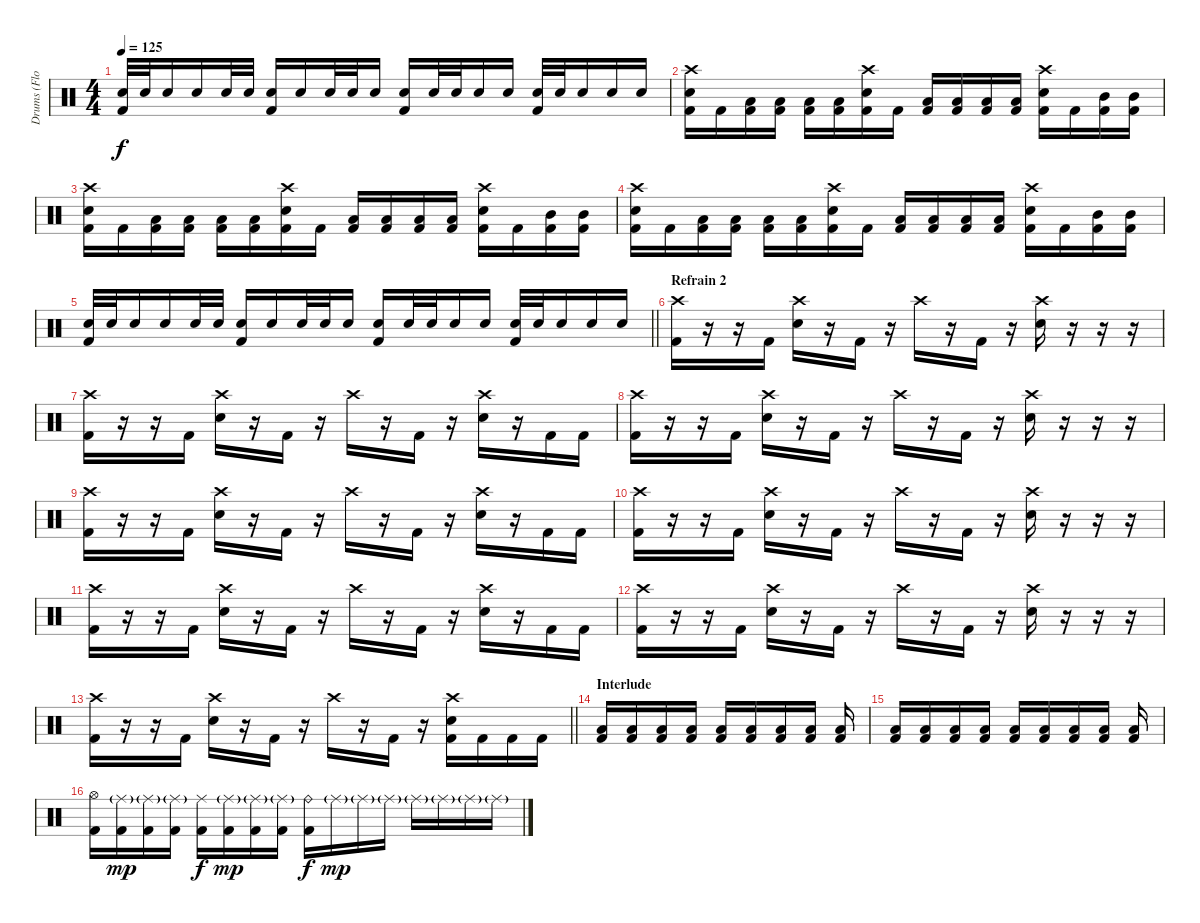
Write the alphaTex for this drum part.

\track ("Drums (Floboter)" "Drums (Flo") {instrument percussion}
\staff {score}
\articulation defaults
\ts (4 4)
\tempo 125
\clef neutral
\ks c
("Snare (hit) 2" "Kick (hit) 2").32{dy f} "Snare (hit) 2".32 "Snare (hit) 2".16 "Snare (hit) 2".16 "Snare (hit) 2".32 "Snare (hit) 2".32 ("Snare (hit) 2" "Kick (hit) 2").16 "Snare (hit) 2".16 "Snare (hit) 2".32 "Snare (hit) 2".32 "Snare (hit) 2".16 ("Snare (hit) 2" "Kick (hit) 2").16 "Snare (hit) 2".32 "Snare (hit) 2".32 "Snare (hit) 2".16 "Snare (hit) 2".16 ("Snare (hit) 2" "Kick (hit) 2").32 "Snare (hit) 2".32 "Snare (hit) 2".16 "Snare (hit) 2".16 "Snare (hit) 2".16 |
("Crash high (hit)" "Snare (hit) 2" "Kick (hit) 2").16 "Kick (hit) 2".16 ("Low Tom (hit)" "Kick (hit) 2").16 ("Low Tom (hit)" "Kick (hit) 2").16 ("Low Floor Tom (hit)" "Kick (hit) 2").16 ("Low Floor Tom (hit)" "Kick (hit) 2").16 ("Crash high (hit)" "Snare (hit) 2" "Kick (hit) 2").16 "Kick (hit) 2".16 ("Low Tom (hit)" "Kick (hit) 2").16 ("Low Tom (hit)" "Kick (hit) 2").16 ("Low Floor Tom (hit)" "Kick (hit) 2").16 ("Low Floor Tom (hit)" "Kick (hit) 2").16 ("Crash high (hit)" "Snare (hit) 2" "Kick (hit) 2").16 "Kick (hit) 2".16 ("Mid Tom (hit)" "Kick (hit) 2").16 ("Mid Tom (hit)" "Kick (hit) 2").16 |
("Crash high (hit)" "Snare (hit) 2" "Kick (hit) 2").16 "Kick (hit) 2".16 ("Low Tom (hit)" "Kick (hit) 2").16 ("Low Tom (hit)" "Kick (hit) 2").16 ("Low Floor Tom (hit)" "Kick (hit) 2").16 ("Low Floor Tom (hit)" "Kick (hit) 2").16 ("Crash high (hit)" "Snare (hit) 2" "Kick (hit) 2").16 "Kick (hit) 2".16 ("Low Tom (hit)" "Kick (hit) 2").16 ("Low Tom (hit)" "Kick (hit) 2").16 ("Low Floor Tom (hit)" "Kick (hit) 2").16 ("Low Floor Tom (hit)" "Kick (hit) 2").16 ("Crash high (hit)" "Snare (hit) 2" "Kick (hit) 2").16 "Kick (hit) 2".16 ("Mid Tom (hit)" "Kick (hit) 2").16 ("Mid Tom (hit)" "Kick (hit) 2").16 |
("Crash high (hit)" "Snare (hit) 2" "Kick (hit) 2").16 "Kick (hit) 2".16 ("Low Tom (hit)" "Kick (hit) 2").16 ("Low Tom (hit)" "Kick (hit) 2").16 ("Low Floor Tom (hit)" "Kick (hit) 2").16 ("Low Floor Tom (hit)" "Kick (hit) 2").16 ("Crash high (hit)" "Snare (hit) 2" "Kick (hit) 2").16 "Kick (hit) 2".16 ("Low Tom (hit)" "Kick (hit) 2").16 ("Low Tom (hit)" "Kick (hit) 2").16 ("Low Floor Tom (hit)" "Kick (hit) 2").16 ("Low Floor Tom (hit)" "Kick (hit) 2").16 ("Crash high (hit)" "Snare (hit) 2" "Kick (hit) 2").16 "Kick (hit) 2".16 ("Mid Tom (hit)" "Kick (hit) 2").16 ("Mid Tom (hit)" "Kick (hit) 2").16 |
\barLineRight lightlight
("Snare (hit) 2" "Kick (hit) 2").32 "Snare (hit) 2".32 "Snare (hit) 2".16 "Snare (hit) 2".16 "Snare (hit) 2".32 "Snare (hit) 2".32 ("Snare (hit) 2" "Kick (hit) 2").16 "Snare (hit) 2".16 "Snare (hit) 2".32 "Snare (hit) 2".32 "Snare (hit) 2".16 ("Snare (hit) 2" "Kick (hit) 2").16 "Snare (hit) 2".32 "Snare (hit) 2".32 "Snare (hit) 2".16 "Snare (hit) 2".16 ("Snare (hit) 2" "Kick (hit) 2").32 "Snare (hit) 2".32 "Snare (hit) 2".16 "Snare (hit) 2".16 "Snare (hit) 2".16 |
\section ("" "Refrain 2")
("Crash high (hit)" "Kick (hit) 2").16 r.16 r.16 "Kick (hit) 2".16 ("Crash high (hit)" "Snare (hit) 2").16 r.16 "Kick (hit) 2".16 r.16 "Crash high (hit)".16 r.16 "Kick (hit) 2".16 r.16 ("Crash high (hit)" "Snare (hit) 2").16 r.16 r.16 r.16 |
("Crash high (hit)" "Kick (hit) 2").16 r.16 r.16 "Kick (hit) 2".16 ("Crash high (hit)" "Snare (hit) 2").16 r.16 "Kick (hit) 2".16 r.16 "Crash high (hit)".16 r.16 "Kick (hit) 2".16 r.16 ("Crash high (hit)" "Snare (hit) 2").16 r.16 "Kick (hit) 2".16 "Kick (hit) 2".16 |
("Crash high (hit)" "Kick (hit) 2").16 r.16 r.16 "Kick (hit) 2".16 ("Crash high (hit)" "Snare (hit) 2").16 r.16 "Kick (hit) 2".16 r.16 "Crash high (hit)".16 r.16 "Kick (hit) 2".16 r.16 ("Crash high (hit)" "Snare (hit) 2").16 r.16 r.16 r.16 |
("Crash high (hit)" "Kick (hit) 2").16 r.16 r.16 "Kick (hit) 2".16 ("Crash high (hit)" "Snare (hit) 2").16 r.16 "Kick (hit) 2".16 r.16 "Crash high (hit)".16 r.16 "Kick (hit) 2".16 r.16 ("Crash high (hit)" "Snare (hit) 2").16 r.16 "Kick (hit) 2".16 "Kick (hit) 2".16 |
("Crash high (hit)" "Kick (hit) 2").16 r.16 r.16 "Kick (hit) 2".16 ("Crash high (hit)" "Snare (hit) 2").16 r.16 "Kick (hit) 2".16 r.16 "Crash high (hit)".16 r.16 "Kick (hit) 2".16 r.16 ("Crash high (hit)" "Snare (hit) 2").16 r.16 r.16 r.16 |
("Crash high (hit)" "Kick (hit) 2").16 r.16 r.16 "Kick (hit) 2".16 ("Crash high (hit)" "Snare (hit) 2").16 r.16 "Kick (hit) 2".16 r.16 "Crash high (hit)".16 r.16 "Kick (hit) 2".16 r.16 ("Crash high (hit)" "Snare (hit) 2").16 r.16 "Kick (hit) 2".16 "Kick (hit) 2".16 |
("Crash high (hit)" "Kick (hit) 2").16 r.16 r.16 "Kick (hit) 2".16 ("Crash high (hit)" "Snare (hit) 2").16 r.16 "Kick (hit) 2".16 r.16 "Crash high (hit)".16 r.16 "Kick (hit) 2".16 r.16 ("Crash high (hit)" "Snare (hit) 2").16 r.16 r.16 r.16 |
\barLineRight lightlight
("Crash high (hit)" "Kick (hit) 2").16 r.16 r.16 "Kick (hit) 2".16 ("Crash high (hit)" "Snare (hit) 2").16 r.16 "Kick (hit) 2".16 r.16 "Crash high (hit)".16 r.16 "Kick (hit) 2".16 r.16 ("Crash high (hit)" "Snare (hit) 2" "Kick (hit) 2").16 "Kick (hit) 2".16 "Kick (hit) 2".16 "Kick (hit) 2".16 |
\section ("" "Interlude")
("Low Floor Tom (hit)" "Kick (hit) 2").16 ("Low Floor Tom (hit)" "Kick (hit) 2").16 ("Low Floor Tom (hit)" "Kick (hit) 2").16 ("Low Floor Tom (hit)" "Kick (hit) 2").16 ("Low Floor Tom (hit)" "Kick (hit) 2").16 ("Low Floor Tom (hit)" "Kick (hit) 2").16 ("Low Floor Tom (hit)" "Kick (hit) 2").16 ("Low Floor Tom (hit)" "Kick (hit) 2").16 ("Low Floor Tom (hit)" "Kick (hit) 2").16 |
("Low Floor Tom (hit)" "Kick (hit) 2").16 ("Low Floor Tom (hit)" "Kick (hit) 2").16 ("Low Floor Tom (hit)" "Kick (hit) 2").16 ("Low Floor Tom (hit)" "Kick (hit) 2").16 ("Low Floor Tom (hit)" "Kick (hit) 2").16 ("Low Floor Tom (hit)" "Kick (hit) 2").16 ("Low Floor Tom (hit)" "Kick (hit) 2").16 ("Low Floor Tom (hit)" "Kick (hit) 2").16 ("Low Floor Tom (hit)" "Kick (hit) 2").16 |
("Hi-Hat (open)" "Kick (hit) 2").16 ("Ride (middle)"{g} "Kick (hit) 2").16{dy mp} ("Ride (middle)"{g} "Kick (hit) 2").16 ("Ride (middle)"{g} "Kick (hit) 2").16 ("Ride (middle)" "Kick (hit) 2").16{dy f} ("Ride (middle)"{g} "Kick (hit) 2").16{dy mp} ("Ride (middle)"{g} "Kick (hit) 2").16 ("Ride (middle)"{g} "Kick (hit) 2").16 ("Ride (bell)" "Kick (hit) 2").16{dy f} "Ride (middle)"{g}.16{dy mp} "Ride (middle)"{g}.16 "Ride (middle)"{g}.16 "Ride (middle)"{g}.16 "Ride (middle)"{g}.16 "Ride (middle)"{g}.16 "Ride (middle)"{g}.16
